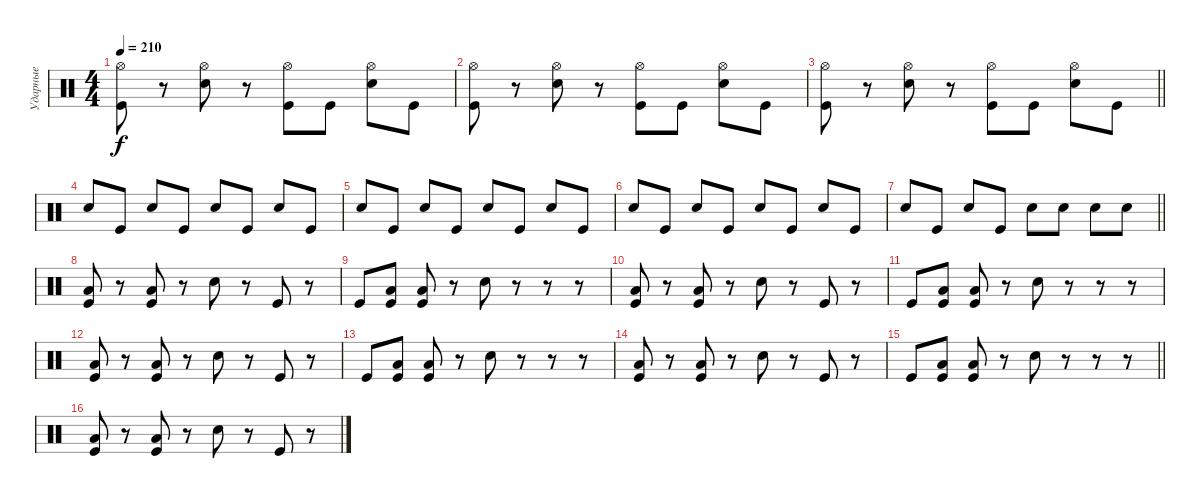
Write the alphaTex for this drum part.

\track ("Ударные" "Ударные") {instrument percussion}
\staff {score}
\articulation defaults
\ts (4 4)
\tempo 210
\clef neutral
\ks c
("Hi-Hat (open)" "Kick (hit)").8{dy f} r.8 ("Hi-Hat (open)" "Electric Snare (hit)").8 r.8 ("Hi-Hat (open)" "Kick (hit)").8 "Kick (hit)".8 ("Hi-Hat (open)" "Electric Snare (hit)").8 "Kick (hit)".8 |
("Hi-Hat (open)" "Kick (hit)").8 r.8 ("Hi-Hat (open)" "Electric Snare (hit)").8 r.8 ("Hi-Hat (open)" "Kick (hit)").8 "Kick (hit)".8 ("Hi-Hat (open)" "Electric Snare (hit)").8 "Kick (hit)".8 |
\barLineRight lightlight
("Hi-Hat (open)" "Kick (hit)").8 r.8 ("Hi-Hat (open)" "Electric Snare (hit)").8 r.8 ("Hi-Hat (open)" "Kick (hit)").8 "Kick (hit)".8 ("Hi-Hat (open)" "Electric Snare (hit)").8 "Kick (hit)".8 |
"Electric Snare (hit)".8 "Kick (hit)".8 "Electric Snare (hit)".8 "Kick (hit)".8 "Electric Snare (hit)".8 "Kick (hit)".8 "Electric Snare (hit)".8 "Kick (hit)".8 |
"Electric Snare (hit)".8 "Kick (hit)".8 "Electric Snare (hit)".8 "Kick (hit)".8 "Electric Snare (hit)".8 "Kick (hit)".8 "Electric Snare (hit)".8 "Kick (hit)".8 |
"Electric Snare (hit)".8 "Kick (hit)".8 "Electric Snare (hit)".8 "Kick (hit)".8 "Electric Snare (hit)".8 "Kick (hit)".8 "Electric Snare (hit)".8 "Kick (hit)".8 |
\barLineRight lightlight "Electric Snare (hit)".8 "Kick (hit)".8 "Electric Snare (hit)".8 "Kick (hit)".8 "Electric Snare (hit)".8 "Electric Snare (hit)".8 "Electric Snare (hit)".8 "Electric Snare (hit)".8
|
("Low Tom (hit)" "Kick (hit)").8 r.8 ("Low Tom (hit)" "Kick (hit)").8 r.8 "Electric Snare (hit)".8 r.8 "Kick (hit)".8 r.8 |
"Kick (hit)".8 ("Low Tom (hit)" "Kick (hit)").8 ("Low Tom (hit)" "Kick (hit)").8 r.8 "Electric Snare (hit)".8 r.8 r.8 r.8 |
("Low Tom (hit)" "Kick (hit)").8 r.8 ("Low Tom (hit)" "Kick (hit)").8 r.8 "Electric Snare (hit)".8 r.8 "Kick (hit)".8 r.8 |
"Kick (hit)".8 ("Low Tom (hit)" "Kick (hit)").8 ("Low Tom (hit)" "Kick (hit)").8 r.8 "Electric Snare (hit)".8 r.8 r.8 r.8 |
("Low Tom (hit)" "Kick (hit)").8 r.8 ("Low Tom (hit)" "Kick (hit)").8 r.8 "Electric Snare (hit)".8 r.8 "Kick (hit)".8 r.8 |
"Kick (hit)".8 ("Low Tom (hit)" "Kick (hit)").8 ("Low Tom (hit)" "Kick (hit)").8 r.8 "Electric Snare (hit)".8 r.8 r.8 r.8 |
("Low Tom (hit)" "Kick (hit)").8 r.8 ("Low Tom (hit)" "Kick (hit)").8 r.8 "Electric Snare (hit)".8 r.8 "Kick (hit)".8 r.8 |
\barLineRight lightlight "Kick (hit)".8
("Low Tom (hit)" "Kick (hit)").8 ("Low Tom (hit)" "Kick (hit)").8 r.8 "Electric Snare (hit)".8 r.8 r.8 r.8 |
("Low Tom (hit)" "Kick (hit)").8 r.8 ("Low Tom (hit)" "Kick (hit)").8 r.8 "Electric Snare (hit)".8 r.8 "Kick (hit)".8 r.8
